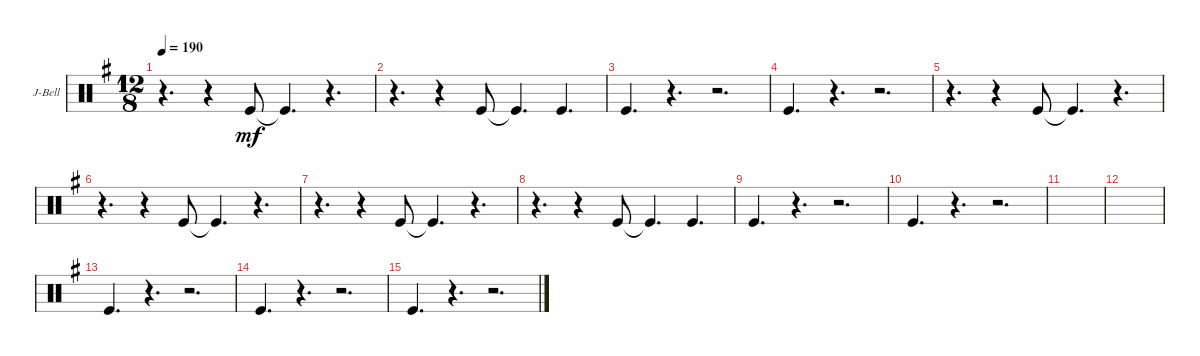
\defaultSystemsLayout 4
\bracketExtendMode groupsimilarinstruments
\firstSystemTrackNameOrientation horizontal
\otherSystemsTrackNameOrientation horizontal
\track ("Jingle Bell" "J-Bell") {instrument percussion}
\staff {score}
\articulation defaults
\ts (12 8)
\tempo 190
\clef neutral
\ks g
r.4{d dy mf} r.4 "Kick (hit)".8 "Kick (hit)"{t}.4{d} r.4{d} |
r.4{d} r.4 "Kick (hit)".8 "Kick (hit)"{t}.4{d} "Kick (hit)".4{d} |
"Kick (hit)".4{d} r.4{d} r.2{d} |
"Kick (hit)".4{d} r.4{d} r.2{d} |
r.4{d} r.4 "Kick (hit)".8 "Kick (hit)"{t}.4{d} r.4{d} |
r.4{d} r.4 "Kick (hit)".8 "Kick (hit)"{t}.4{d} r.4{d} |
r.4{d} r.4 "Kick (hit)".8 "Kick (hit)"{t}.4{d} r.4{d} |
r.4{d} r.4 "Kick (hit)".8 "Kick (hit)"{t}.4{d} "Kick (hit)".4{d} |
"Kick (hit)".4{d} r.4{d} r.2{d} |
"Kick (hit)".4{d} r.4{d} r.2{d} |
|
|
"Kick (hit)".4{d} r.4{d} r.2{d} |
"Kick (hit)".4{d} r.4{d} r.2{d} |
"Kick (hit)".4{d} r.4{d} r.2{d}
